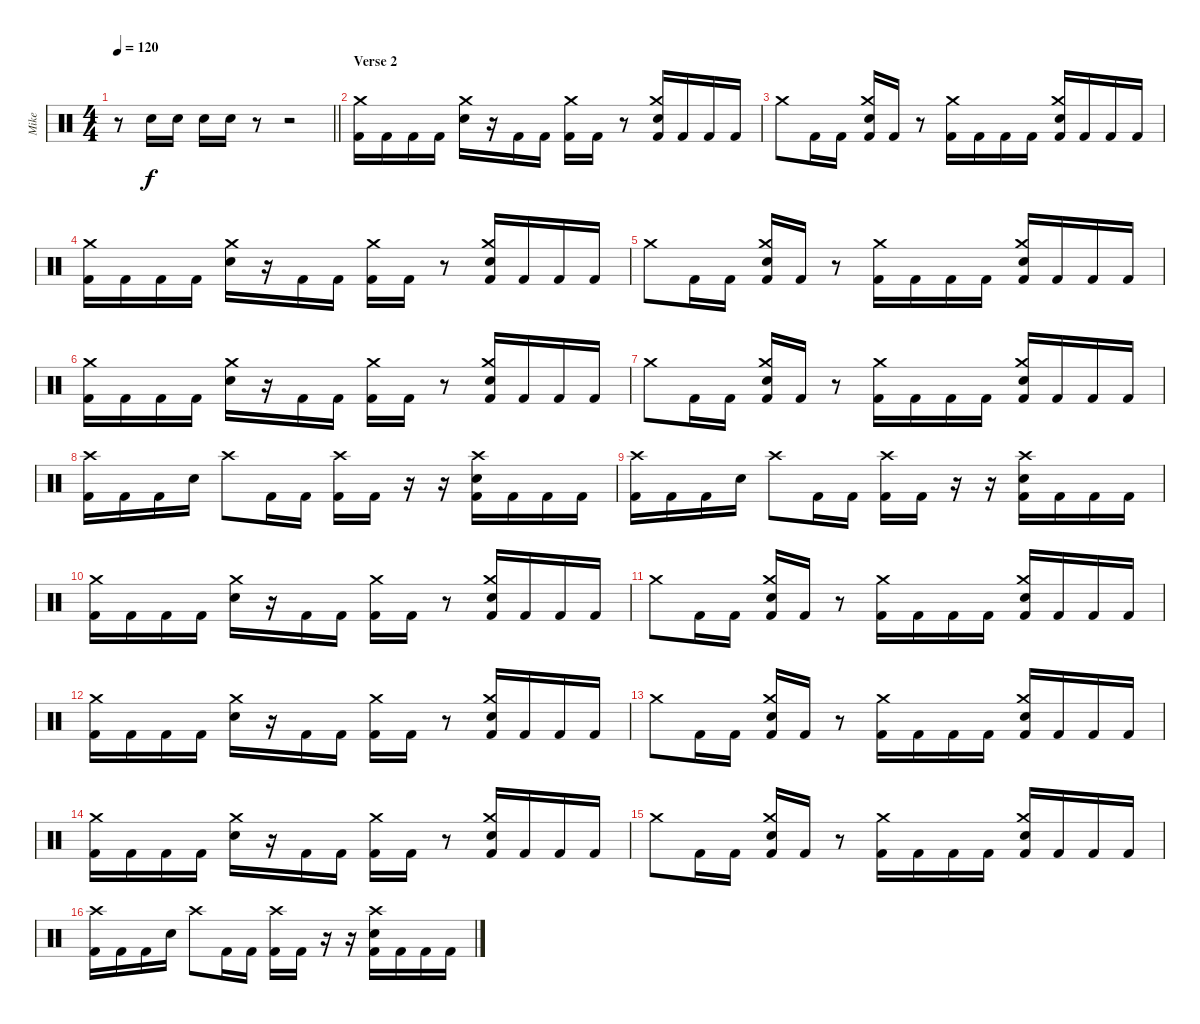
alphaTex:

\track ("Mike" "Mike") {instrument percussion}
\staff {score}
\articulation defaults
\ts (4 4)
\tempo 120
\clef neutral
\barLineRight lightlight
\ks c
r.8{dy f} "Snare (hit) 2".16 "Snare (hit) 2".16 "Snare (hit) 2".16 "Snare (hit) 2".16 r.8 r.2 |
\section ("" "Verse 2")
("Crash medium (hit)" "Kick (hit) 2").16 "Kick (hit) 2".16 "Kick (hit) 2".16 "Kick (hit) 2".16 ("Crash medium (hit)" "Snare (hit) 2").16 r.16 "Kick (hit) 2".16 "Kick (hit) 2".16 ("Crash medium (hit)" "Kick (hit) 2").16 "Kick (hit) 2".16 r.8 ("Crash medium (hit)" "Snare (hit) 2" "Kick (hit) 2").16 "Kick (hit) 2".16 "Kick (hit) 2".16 "Kick (hit) 2".16 |
"Crash medium (hit)".8 "Kick (hit) 2".16 "Kick (hit) 2".16 ("Crash medium (hit)" "Snare (hit) 2" "Kick (hit) 2").16 "Kick (hit) 2".16 r.8 ("Crash medium (hit)" "Kick (hit) 2").16 "Kick (hit) 2".16 "Kick (hit) 2".16 "Kick (hit) 2".16 ("Crash medium (hit)" "Snare (hit) 2" "Kick (hit) 2").16 "Kick (hit) 2".16 "Kick (hit) 2".16 "Kick (hit) 2".16 |
("Crash medium (hit)" "Kick (hit) 2").16 "Kick (hit) 2".16 "Kick (hit) 2".16 "Kick (hit) 2".16 ("Crash medium (hit)" "Snare (hit) 2").16 r.16 "Kick (hit) 2".16 "Kick (hit) 2".16 ("Crash medium (hit)" "Kick (hit) 2").16 "Kick (hit) 2".16 r.8 ("Crash medium (hit)" "Snare (hit) 2" "Kick (hit) 2").16 "Kick (hit) 2".16 "Kick (hit) 2".16 "Kick (hit) 2".16 |
"Crash medium (hit)".8 "Kick (hit) 2".16 "Kick (hit) 2".16 ("Crash medium (hit)" "Snare (hit) 2" "Kick (hit) 2").16 "Kick (hit) 2".16 r.8 ("Crash medium (hit)" "Kick (hit) 2").16 "Kick (hit) 2".16 "Kick (hit) 2".16 "Kick (hit) 2".16 ("Crash medium (hit)" "Snare (hit) 2" "Kick (hit) 2").16 "Kick (hit) 2".16 "Kick (hit) 2".16 "Kick (hit) 2".16 |
("Crash medium (hit)" "Kick (hit) 2").16 "Kick (hit) 2".16 "Kick (hit) 2".16 "Kick (hit) 2".16 ("Crash medium (hit)" "Snare (hit) 2").16 r.16 "Kick (hit) 2".16 "Kick (hit) 2".16 ("Crash medium (hit)" "Kick (hit) 2").16 "Kick (hit) 2".16 r.8 ("Crash medium (hit)" "Snare (hit) 2" "Kick (hit) 2").16 "Kick (hit) 2".16 "Kick (hit) 2".16 "Kick (hit) 2".16 |
"Crash medium (hit)".8 "Kick (hit) 2".16 "Kick (hit) 2".16 ("Crash medium (hit)" "Snare (hit) 2" "Kick (hit) 2").16 "Kick (hit) 2".16 r.8 ("Crash medium (hit)" "Kick (hit) 2").16 "Kick (hit) 2".16 "Kick (hit) 2".16 "Kick (hit) 2".16 ("Crash medium (hit)" "Snare (hit) 2" "Kick (hit) 2").16 "Kick (hit) 2".16 "Kick (hit) 2".16 "Kick (hit) 2".16 |
("Crash high (hit)" "Kick (hit) 2").16 "Kick (hit) 2".16 "Kick (hit) 2".16 "Snare (hit) 2".16 "Crash high (hit)".8 "Kick (hit) 2".16 "Kick (hit) 2".16 ("Crash high (hit)" "Kick (hit) 2").16 "Kick (hit) 2".16 r.16 r.16 ("Crash high (hit)" "Snare (hit) 2" "Kick (hit) 2").16 "Kick (hit) 2".16 "Kick (hit) 2".16 "Kick (hit) 2".16 |
("Crash high (hit)" "Kick (hit) 2").16 "Kick (hit) 2".16 "Kick (hit) 2".16 "Snare (hit) 2".16 "Crash high (hit)".8 "Kick (hit) 2".16 "Kick (hit) 2".16 ("Crash high (hit)" "Kick (hit) 2").16 "Kick (hit) 2".16 r.16 r.16 ("Crash high (hit)" "Snare (hit) 2" "Kick (hit) 2").16 "Kick (hit) 2".16 "Kick (hit) 2".16 "Kick (hit) 2".16 |
("Crash medium (hit)" "Kick (hit) 2").16 "Kick (hit) 2".16 "Kick (hit) 2".16 "Kick (hit) 2".16 ("Crash medium (hit)" "Snare (hit) 2").16 r.16 "Kick (hit) 2".16 "Kick (hit) 2".16 ("Crash medium (hit)" "Kick (hit) 2").16 "Kick (hit) 2".16 r.8 ("Crash medium (hit)" "Snare (hit) 2" "Kick (hit) 2").16 "Kick (hit) 2".16 "Kick (hit) 2".16 "Kick (hit) 2".16 |
"Crash medium (hit)".8 "Kick (hit) 2".16 "Kick (hit) 2".16 ("Crash medium (hit)" "Snare (hit) 2" "Kick (hit) 2").16 "Kick (hit) 2".16 r.8 ("Crash medium (hit)" "Kick (hit) 2").16 "Kick (hit) 2".16 "Kick (hit) 2".16 "Kick (hit) 2".16 ("Crash medium (hit)" "Snare (hit) 2" "Kick (hit) 2").16 "Kick (hit) 2".16 "Kick (hit) 2".16 "Kick (hit) 2".16 |
("Crash medium (hit)" "Kick (hit) 2").16 "Kick (hit) 2".16 "Kick (hit) 2".16 "Kick (hit) 2".16 ("Crash medium (hit)" "Snare (hit) 2").16 r.16 "Kick (hit) 2".16 "Kick (hit) 2".16 ("Crash medium (hit)" "Kick (hit) 2").16 "Kick (hit) 2".16 r.8 ("Crash medium (hit)" "Snare (hit) 2" "Kick (hit) 2").16 "Kick (hit) 2".16 "Kick (hit) 2".16 "Kick (hit) 2".16 |
"Crash medium (hit)".8 "Kick (hit) 2".16 "Kick (hit) 2".16 ("Crash medium (hit)" "Snare (hit) 2" "Kick (hit) 2").16 "Kick (hit) 2".16 r.8 ("Crash medium (hit)" "Kick (hit) 2").16 "Kick (hit) 2".16 "Kick (hit) 2".16 "Kick (hit) 2".16 ("Crash medium (hit)" "Snare (hit) 2" "Kick (hit) 2").16 "Kick (hit) 2".16 "Kick (hit) 2".16 "Kick (hit) 2".16 |
("Crash medium (hit)" "Kick (hit) 2").16 "Kick (hit) 2".16 "Kick (hit) 2".16 "Kick (hit) 2".16 ("Crash medium (hit)" "Snare (hit) 2").16 r.16 "Kick (hit) 2".16 "Kick (hit) 2".16 ("Crash medium (hit)" "Kick (hit) 2").16 "Kick (hit) 2".16 r.8 ("Crash medium (hit)" "Snare (hit) 2" "Kick (hit) 2").16 "Kick (hit) 2".16 "Kick (hit) 2".16 "Kick (hit) 2".16 |
"Crash medium (hit)".8 "Kick (hit) 2".16 "Kick (hit) 2".16 ("Crash medium (hit)" "Snare (hit) 2" "Kick (hit) 2").16 "Kick (hit) 2".16 r.8 ("Crash medium (hit)" "Kick (hit) 2").16 "Kick (hit) 2".16 "Kick (hit) 2".16 "Kick (hit) 2".16 ("Crash medium (hit)" "Snare (hit) 2" "Kick (hit) 2").16 "Kick (hit) 2".16 "Kick (hit) 2".16 "Kick (hit) 2".16 |
("Crash high (hit)" "Kick (hit) 2").16 "Kick (hit) 2".16 "Kick (hit) 2".16 "Snare (hit) 2".16 "Crash high (hit)".8 "Kick (hit) 2".16 "Kick (hit) 2".16 ("Crash high (hit)" "Kick (hit) 2").16 "Kick (hit) 2".16 r.16 r.16 ("Crash high (hit)" "Snare (hit) 2" "Kick (hit) 2").16 "Kick (hit) 2".16 "Kick (hit) 2".16 "Kick (hit) 2".16
